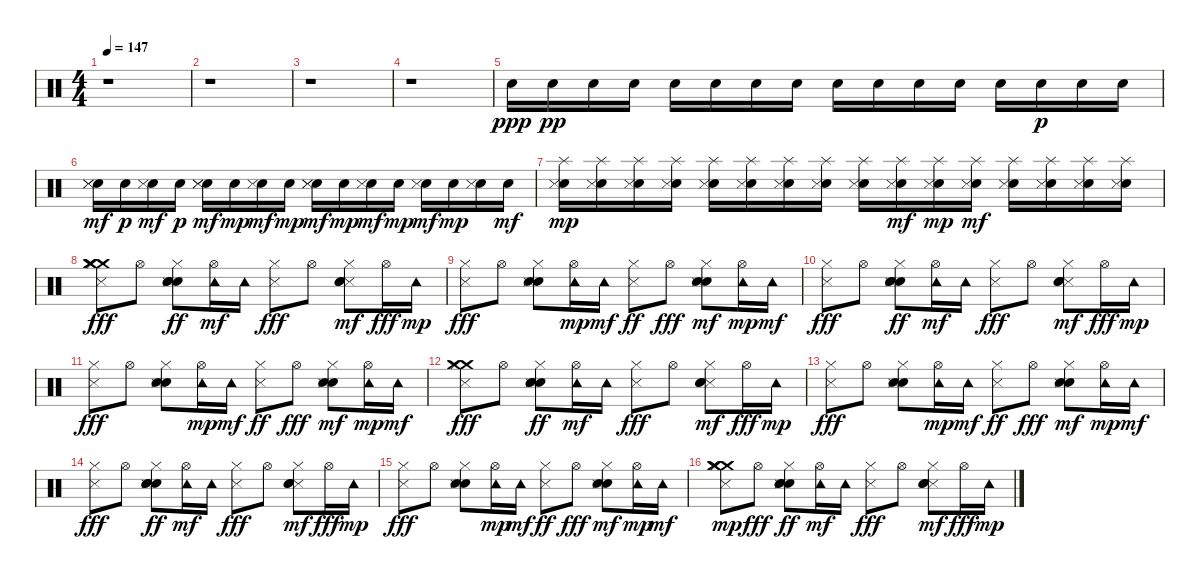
\track "" {instrument percussion}
\staff {score}
\articulation defaults
\ts (4 4)
\tempo 147
\clef neutral
\ks c
r.1{dy p} |
r.1 |
r.1 |
r.1 |
"Snare (hit) 2".16{dy ppp} "Snare (hit) 2".16{dy pp} "Snare (hit) 2".16 "Snare (hit) 2".16 "Snare (hit) 2".16 "Snare (hit) 2".16 "Snare (hit) 2".16 "Snare (hit) 2".16 "Snare (hit) 2".16 "Snare (hit) 2".16 "Snare (hit) 2".16 "Snare (hit) 2".16 "Snare (hit) 2".16 "Snare (hit) 2".16{dy p} "Snare (hit) 2".16 "Snare (hit) 2".16 |
("Snare (hit) 2" "Metronome (hit)" "Metronome (hit)").16{dy mf} "Snare (hit) 2".16{dy p} ("Snare (hit) 2" "Metronome (hit)").16{dy mf} "Snare (hit) 2".16{dy p} ("Snare (hit) 2" "Metronome (hit)" "Metronome (hit)").16{dy mf} "Snare (hit) 2".16{dy mp} ("Snare (hit) 2" "Metronome (hit)").16{dy mf} "Snare (hit) 2".16{dy mp} ("Snare (hit) 2" "Metronome (hit)" "Metronome (hit)").16{dy mf} "Snare (hit) 2".16{dy mp} ("Snare (hit) 2" "Metronome (hit)").16{dy mf} "Snare (hit) 2".16{dy mp} ("Snare (hit) 2" "Metronome (hit)").16{dy mf} "Snare (hit) 2".16{dy mp} ("Snare (hit) 2" "Metronome (hit)").16 "Snare (hit) 2".16{dy mf} |
("Snare (hit) 2" "Splash (hit)" "Metronome (hit)").16{dy mp} ("Snare (hit) 2" "Metronome (hit)" "Splash (hit)").16 ("Snare (hit) 2" "Metronome (hit)" "Splash (hit)").16 ("Snare (hit) 2" "Metronome (hit)" "Splash (hit)").16 ("Snare (hit) 2" "Metronome (hit)" "Splash (hit)").16 ("Snare (hit) 2" "Metronome (hit)" "Splash (hit)").16 ("Snare (hit) 2" "Metronome (hit)" "Splash (hit)").16 ("Snare (hit) 2" "Metronome (hit)" "Splash (hit)").16 ("Snare (hit) 2" "Metronome (hit)" "Splash (hit)").16 ("Snare (hit) 2" "Splash (hit)" "Metronome (hit)").16{dy mf} ("Snare (hit) 2" "Metronome (hit)" "Splash (hit)").16{dy mp} ("Snare (hit) 2" "Metronome (hit)" "Splash (hit)").16{dy mf} ("Snare (hit) 2" "Metronome (hit)" "Splash (hit)").16 ("Snare (hit) 2" "Metronome (hit)" "Splash (hit)").16 ("Snare (hit) 2" "Metronome (hit)" "Splash (hit)").16 ("Snare (hit) 2" "Metronome (hit)" "Splash (hit)").16 |
("Crash medium (hit)" "Crash medium (hit)" "Crash medium (hit)" "Hi-Hat (closed)" "Metronome (hit)").8{dy fff} "Hi-Hat (open)".8 ("Hand Clap (hit)" "Metronome (hit)" "Hi-Hat (closed)" "Snare (hit) 2" "Snare (hit) 2").8{dy ff} ("Hi-Hat (open)" "Tambourine (hit)").16{dy mf} "Tambourine (hit)".16 ("Hi-Hat (closed)" "Metronome (hit)").8{dy fff} "Hi-Hat (open)".8 ("Metronome (hit)" "Hand Clap (hit)" "Hi-Hat (closed)" "Snare (hit) 2").8{dy mf} "Hi-Hat (open)".16{dy fff} "Tambourine (hit)".16{dy mp} |
("Metronome (hit)" "Hi-Hat (closed)").8{dy fff} "Hi-Hat (open)".8 ("Hand Clap (hit)" "Metronome (hit)" "Hi-Hat (closed)" "Snare (hit) 2").8 ("Hi-Hat (open)" "Tambourine (hit)").16{dy mp} "Tambourine (hit)".16{dy mf} ("Metronome (hit)" "Hi-Hat (closed)").8{dy ff} "Hi-Hat (open)".8{dy fff} ("Hand Clap (hit)" "Metronome (hit)" "Hi-Hat (closed)" "Snare (hit) 2").8{dy mf} ("Hi-Hat (open)" "Tambourine (hit)").16{dy mp} "Tambourine (hit)".16{dy mf} |
("Hi-Hat (closed)" "Metronome (hit)").8{dy fff} "Hi-Hat (open)".8 ("Hand Clap (hit)" "Metronome (hit)" "Hi-Hat (closed)" "Snare (hit) 2" "Snare (hit) 2").8{dy ff} ("Hi-Hat (open)" "Tambourine (hit)").16{dy mf} "Tambourine (hit)".16 ("Hi-Hat (closed)" "Metronome (hit)").8{dy fff} "Hi-Hat (open)".8 ("Metronome (hit)" "Hand Clap (hit)" "Hi-Hat (closed)" "Snare (hit) 2").8{dy mf} "Hi-Hat (open)".16{dy fff} "Tambourine (hit)".16{dy mp} |
("Metronome (hit)" "Hi-Hat (closed)").8{dy fff} "Hi-Hat (open)".8 ("Hand Clap (hit)" "Metronome (hit)" "Hi-Hat (closed)" "Snare (hit) 2").8 ("Hi-Hat (open)" "Tambourine (hit)").16{dy mp} "Tambourine (hit)".16{dy mf} ("Metronome (hit)" "Hi-Hat (closed)").8{dy ff} "Hi-Hat (open)".8{dy fff} ("Hand Clap (hit)" "Metronome (hit)" "Hi-Hat (closed)" "Snare (hit) 2").8{dy mf} ("Hi-Hat (open)" "Tambourine (hit)").16{dy mp} "Tambourine (hit)".16{dy mf} |
("Crash medium (hit)" "Crash medium (hit)" "Hi-Hat (closed)" "Metronome (hit)").8{dy fff} "Hi-Hat (open)".8 ("Hand Clap (hit)" "Metronome (hit)" "Hi-Hat (closed)" "Snare (hit) 2" "Snare (hit) 2").8{dy ff} ("Hi-Hat (open)" "Tambourine (hit)").16{dy mf} "Tambourine (hit)".16 ("Hi-Hat (closed)" "Metronome (hit)").8{dy fff} "Hi-Hat (open)".8 ("Metronome (hit)" "Hand Clap (hit)" "Hi-Hat (closed)" "Snare (hit) 2").8{dy mf} "Hi-Hat (open)".16{dy fff} "Tambourine (hit)".16{dy mp} |
("Metronome (hit)" "Hi-Hat (closed)").8{dy fff} "Hi-Hat (open)".8 ("Hand Clap (hit)" "Metronome (hit)" "Hi-Hat (closed)" "Snare (hit) 2").8 ("Hi-Hat (open)" "Tambourine (hit)").16{dy mp} "Tambourine (hit)".16{dy mf} ("Metronome (hit)" "Hi-Hat (closed)").8{dy ff} "Hi-Hat (open)".8{dy fff} ("Hand Clap (hit)" "Metronome (hit)" "Hi-Hat (closed)" "Snare (hit) 2").8{dy mf} ("Hi-Hat (open)" "Tambourine (hit)").16{dy mp} "Tambourine (hit)".16{dy mf} |
("Hi-Hat (closed)" "Metronome (hit)").8{dy fff} "Hi-Hat (open)".8 ("Hand Clap (hit)" "Metronome (hit)" "Hi-Hat (closed)" "Snare (hit) 2" "Snare (hit) 2").8{dy ff} ("Hi-Hat (open)" "Tambourine (hit)").16{dy mf} "Tambourine (hit)".16 ("Hi-Hat (closed)" "Metronome (hit)").8{dy fff} "Hi-Hat (open)".8 ("Metronome (hit)" "Hand Clap (hit)" "Hi-Hat (closed)" "Snare (hit) 2").8{dy mf} "Hi-Hat (open)".16{dy fff} "Tambourine (hit)".16{dy mp} |
("Metronome (hit)" "Hi-Hat (closed)").8{dy fff} "Hi-Hat (open)".8 ("Hand Clap (hit)" "Metronome (hit)" "Hi-Hat (closed)" "Snare (hit) 2").8 ("Hi-Hat (open)" "Tambourine (hit)").16{dy mp} "Tambourine (hit)".16{dy mf} ("Metronome (hit)" "Hi-Hat (closed)").8{dy ff} "Hi-Hat (open)".8{dy fff} ("Hand Clap (hit)" "Metronome (hit)" "Hi-Hat (closed)" "Snare (hit) 2").8{dy mf} ("Hi-Hat (open)" "Tambourine (hit)").16{dy mp} "Tambourine (hit)".16{dy mf} |
("Crash medium (hit)" "Crash medium (hit)" "Hi-Hat (closed)" "Metronome (hit)" "Crash medium (hit)").8{dy mp} "Hi-Hat (open)".8{dy fff} ("Hand Clap (hit)" "Metronome (hit)" "Hi-Hat (closed)" "Snare (hit) 2" "Snare (hit) 2").8{dy ff} ("Hi-Hat (open)" "Tambourine (hit)").16{dy mf} "Tambourine (hit)".16 ("Hi-Hat (closed)" "Metronome (hit)").8{dy fff} "Hi-Hat (open)".8 ("Metronome (hit)" "Hand Clap (hit)" "Hi-Hat (closed)" "Snare (hit) 2").8{dy mf} "Hi-Hat (open)".16{dy fff} "Tambourine (hit)".16{dy mp}
